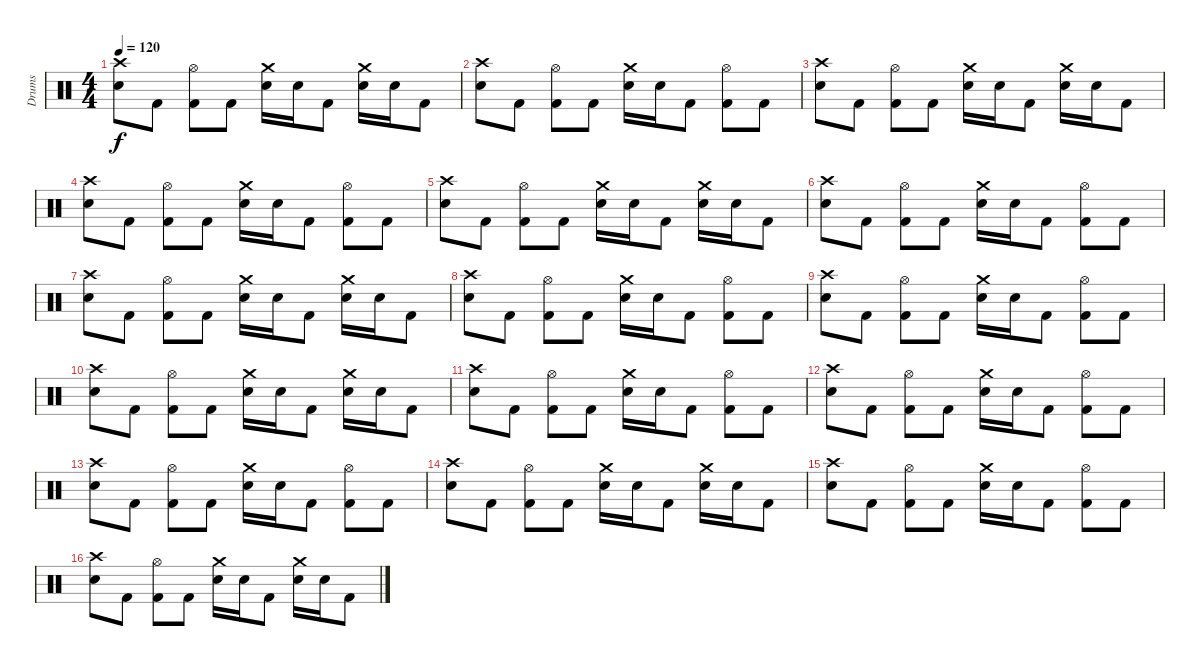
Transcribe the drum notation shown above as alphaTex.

\track ("Drums" "Drums") {instrument percussion}
\staff {score}
\articulation defaults
\ts (4 4)
\tempo 120
\clef neutral
\ks c
("Crash high (hit)" "Electric Snare (hit)").8{dy f} "Kick (hit) 2".8 ("Hi-Hat (open)" "Kick (hit) 2").8 "Kick (hit) 2".8 ("Crash medium (hit)" "Electric Snare (hit)").16 "Electric Snare (hit)".16 "Kick (hit) 2".8 ("Crash medium (hit)" "Electric Snare (hit)").16 "Electric Snare (hit)".16 "Kick (hit) 2".8 |
("Electric Snare (hit)" "Crash high (hit)").8 "Kick (hit) 2".8 ("Hi-Hat (open)" "Kick (hit) 2").8 "Kick (hit) 2".8 ("Crash medium (hit)" "Electric Snare (hit)").16 "Electric Snare (hit)".16 "Kick (hit) 2".8 ("Hi-Hat (open)" "Kick (hit) 2").8 "Kick (hit) 2".8 |
("Crash high (hit)" "Electric Snare (hit)").8 "Kick (hit) 2".8 ("Hi-Hat (open)" "Kick (hit) 2").8 "Kick (hit) 2".8 ("Crash medium (hit)" "Electric Snare (hit)").16 "Electric Snare (hit)".16 "Kick (hit) 2".8 ("Crash medium (hit)" "Electric Snare (hit)").16 "Electric Snare (hit)".16 "Kick (hit) 2".8 |
("Electric Snare (hit)" "Crash high (hit)").8 "Kick (hit) 2".8 ("Hi-Hat (open)" "Kick (hit) 2").8 "Kick (hit) 2".8 ("Crash medium (hit)" "Electric Snare (hit)").16 "Electric Snare (hit)".16 "Kick (hit) 2".8 ("Hi-Hat (open)" "Kick (hit) 2").8 "Kick (hit) 2".8 |
("Crash high (hit)" "Electric Snare (hit)").8 "Kick (hit) 2".8 ("Hi-Hat (open)" "Kick (hit) 2").8 "Kick (hit) 2".8 ("Crash medium (hit)" "Electric Snare (hit)").16 "Electric Snare (hit)".16 "Kick (hit) 2".8 ("Crash medium (hit)" "Electric Snare (hit)").16 "Electric Snare (hit)".16 "Kick (hit) 2".8 |
("Electric Snare (hit)" "Crash high (hit)").8 "Kick (hit) 2".8 ("Hi-Hat (open)" "Kick (hit) 2").8 "Kick (hit) 2".8 ("Crash medium (hit)" "Electric Snare (hit)").16 "Electric Snare (hit)".16 "Kick (hit) 2".8 ("Hi-Hat (open)" "Kick (hit) 2").8 "Kick (hit) 2".8 |
("Crash high (hit)" "Electric Snare (hit)").8 "Kick (hit) 2".8 ("Hi-Hat (open)" "Kick (hit) 2").8 "Kick (hit) 2".8 ("Crash medium (hit)" "Electric Snare (hit)").16 "Electric Snare (hit)".16 "Kick (hit) 2".8 ("Crash medium (hit)" "Electric Snare (hit)").16 "Electric Snare (hit)".16 "Kick (hit) 2".8 |
("Electric Snare (hit)" "Crash high (hit)").8 "Kick (hit) 2".8 ("Hi-Hat (open)" "Kick (hit) 2").8 "Kick (hit) 2".8 ("Crash medium (hit)" "Electric Snare (hit)").16 "Electric Snare (hit)".16 "Kick (hit) 2".8 ("Hi-Hat (open)" "Kick (hit) 2").8 "Kick (hit) 2".8 |
("Electric Snare (hit)" "Crash high (hit)").8 "Kick (hit) 2".8 ("Hi-Hat (open)" "Kick (hit) 2").8 "Kick (hit) 2".8 ("Crash medium (hit)" "Electric Snare (hit)").16 "Electric Snare (hit)".16 "Kick (hit) 2".8 ("Hi-Hat (open)" "Kick (hit) 2").8 "Kick (hit) 2".8 |
("Crash high (hit)" "Electric Snare (hit)").8 "Kick (hit) 2".8 ("Hi-Hat (open)" "Kick (hit) 2").8 "Kick (hit) 2".8 ("Crash medium (hit)" "Electric Snare (hit)").16 "Electric Snare (hit)".16 "Kick (hit) 2".8 ("Crash medium (hit)" "Electric Snare (hit)").16 "Electric Snare (hit)".16 "Kick (hit) 2".8 |
("Crash high (hit)" "Electric Snare (hit)").8 "Kick (hit) 2".8 ("Hi-Hat (open)" "Kick (hit) 2").8 "Kick (hit) 2".8 ("Crash medium (hit)" "Electric Snare (hit)").16 "Electric Snare (hit)".16 "Kick (hit) 2".8 ("Hi-Hat (open)" "Kick (hit) 2").8 "Kick (hit) 2".8 |
("Electric Snare (hit)" "Crash high (hit)").8 "Kick (hit) 2".8 ("Hi-Hat (open)" "Kick (hit) 2").8 "Kick (hit) 2".8 ("Crash medium (hit)" "Electric Snare (hit)").16 "Electric Snare (hit)".16 "Kick (hit) 2".8 ("Hi-Hat (open)" "Kick (hit) 2").8 "Kick (hit) 2".8 |
("Electric Snare (hit)" "Crash high (hit)").8 "Kick (hit) 2".8 ("Hi-Hat (open)" "Kick (hit) 2").8 "Kick (hit) 2".8 ("Crash medium (hit)" "Electric Snare (hit)").16 "Electric Snare (hit)".16 "Kick (hit) 2".8 ("Hi-Hat (open)" "Kick (hit) 2").8 "Kick (hit) 2".8 |
("Crash high (hit)" "Electric Snare (hit)").8 "Kick (hit) 2".8 ("Hi-Hat (open)" "Kick (hit) 2").8 "Kick (hit) 2".8 ("Crash medium (hit)" "Electric Snare (hit)").16 "Electric Snare (hit)".16 "Kick (hit) 2".8 ("Crash medium (hit)" "Electric Snare (hit)").16 "Electric Snare (hit)".16 "Kick (hit) 2".8 |
("Electric Snare (hit)" "Crash high (hit)").8 "Kick (hit) 2".8 ("Hi-Hat (open)" "Kick (hit) 2").8 "Kick (hit) 2".8 ("Crash medium (hit)" "Electric Snare (hit)").16 "Electric Snare (hit)".16 "Kick (hit) 2".8 ("Hi-Hat (open)" "Kick (hit) 2").8 "Kick (hit) 2".8 |
("Crash high (hit)" "Electric Snare (hit)").8 "Kick (hit) 2".8 ("Hi-Hat (open)" "Kick (hit) 2").8 "Kick (hit) 2".8 ("Crash medium (hit)" "Electric Snare (hit)").16 "Electric Snare (hit)".16 "Kick (hit) 2".8 ("Crash medium (hit)" "Electric Snare (hit)").16 "Electric Snare (hit)".16 "Kick (hit) 2".8
